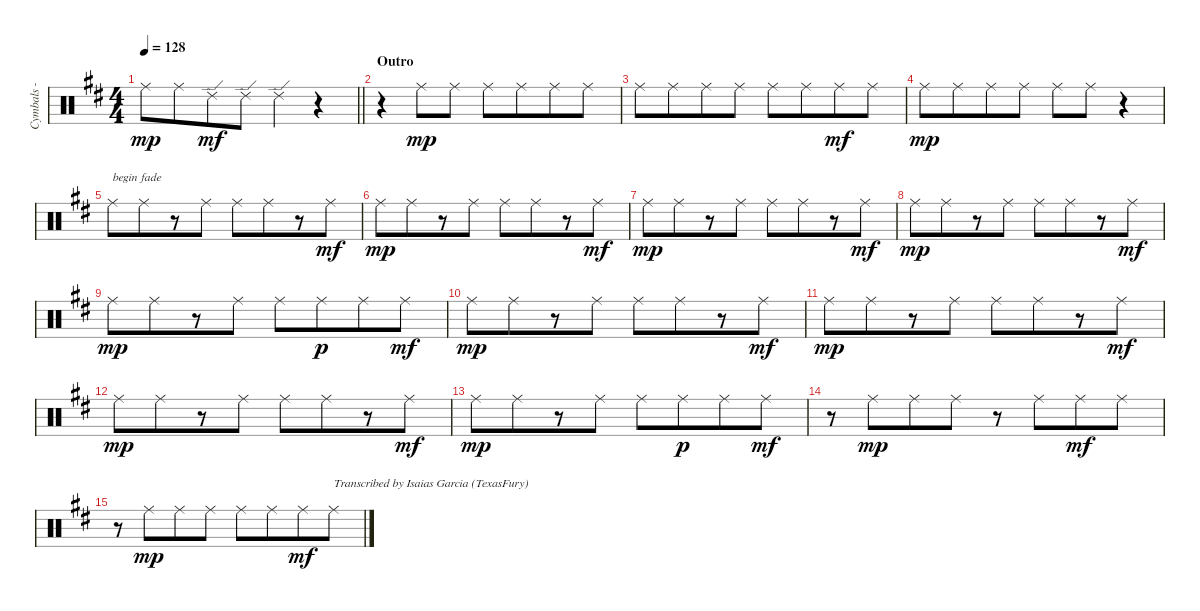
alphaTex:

\track ("Cymbals - ride" "Cymbals - ") {instrument percussion}
\staff {score}
\articulation defaults
\ts (4 4)
\tempo 128
\clef neutral
\barLineRight lightlight
\ks bminor "Ride (middle)".8{dy mp} "Ride (middle)".8{beam merge} "Ride (edge) 2".8{dy mf} "Ride (edge) 2".8 "Ride (edge) 2".4
r.4 |
\section ("" "Outro")
r.4 "Ride (middle)".8{dy mp} "Ride (middle)".8 "Ride (middle)".8 "Ride (middle)".8{beam merge} "Ride (middle)".8 "Ride (middle)".8 |
"Ride (middle)".8 "Ride (middle)".8{beam merge} "Ride (middle)".8 "Ride (middle)".8 "Ride (middle)".8 "Ride (middle)".8{beam merge} "Ride (middle)".8{dy mf} "Ride (middle)".8 |
"Ride (middle)".8{dy mp} "Ride (middle)".8{beam merge} "Ride (middle)".8 "Ride (middle)".8 "Ride (middle)".8 "Ride (middle)".8 r.4 |
"Ride (middle)".8{txt "begin fade"} "Ride (middle)".8{beam merge} r.8 "Ride (middle)".8 "Ride (middle)".8 "Ride (middle)".8{beam merge} r.8 "Ride (middle)".8{dy mf} |
"Ride (middle)".8{dy mp} "Ride (middle)".8{beam merge} r.8 "Ride (middle)".8 "Ride (middle)".8 "Ride (middle)".8{beam merge} r.8 "Ride (middle)".8{dy mf} |
"Ride (middle)".8{dy mp} "Ride (middle)".8{beam merge} r.8 "Ride (middle)".8 "Ride (middle)".8 "Ride (middle)".8{beam merge} r.8 "Ride (middle)".8{dy mf} |
"Ride (middle)".8{dy mp} "Ride (middle)".8{beam merge} r.8 "Ride (middle)".8 "Ride (middle)".8 "Ride (middle)".8{beam merge} r.8 "Ride (middle)".8{dy mf} |
"Ride (middle)".8{dy mp} "Ride (middle)".8{beam merge} r.8 "Ride (middle)".8 "Ride (middle)".8 "Ride (middle)".8{dy p beam merge} "Ride (middle)".8 "Ride (middle)".8{dy mf} |
"Ride (middle)".8{dy mp} "Ride (middle)".8{beam merge} r.8 "Ride (middle)".8 "Ride (middle)".8 "Ride (middle)".8{beam merge} r.8 "Ride (middle)".8{dy mf} |
"Ride (middle)".8{dy mp} "Ride (middle)".8{beam merge} r.8 "Ride (middle)".8 "Ride (middle)".8 "Ride (middle)".8{beam merge} r.8 "Ride (middle)".8{dy mf} |
"Ride (middle)".8{dy mp} "Ride (middle)".8{beam merge} r.8 "Ride (middle)".8 "Ride (middle)".8 "Ride (middle)".8{beam merge} r.8 "Ride (middle)".8{dy mf} |
"Ride (middle)".8{dy mp} "Ride (middle)".8{beam merge} r.8 "Ride (middle)".8 "Ride (middle)".8 "Ride (middle)".8{dy p beam merge} "Ride (middle)".8 "Ride (middle)".8{dy mf} |
r.8 "Ride (middle)".8{dy mp beam merge} "Ride (middle)".8 "Ride (middle)".8 r.8 "Ride (middle)".8{beam merge} "Ride (middle)".8{dy mf} "Ride (middle)".8 |
r.8 "Ride (middle)".8{dy mp beam merge} "Ride (middle)".8 "Ride (middle)".8 "Ride (middle)".8 "Ride (middle)".8{beam merge} "Ride (middle)".8{dy mf} "Ride (middle)".8{txt "Transcribed by Isaias Garcia (TexasFury)"}
